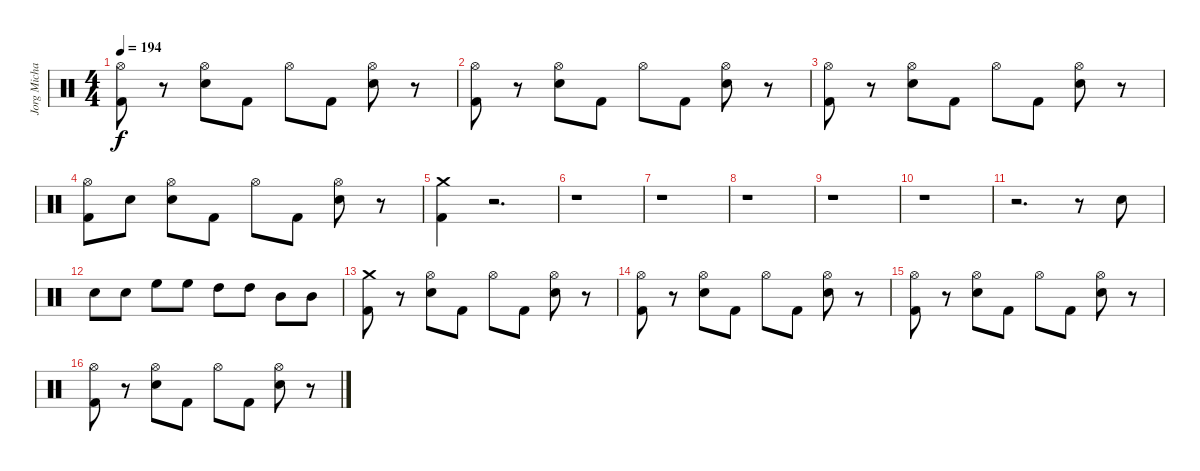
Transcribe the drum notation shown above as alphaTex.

\track ("Jorg Michael" "Jorg Micha") {instrument percussion}
\staff {score}
\articulation defaults
\ts (4 4)
\tempo 194
\clef neutral
\ks c
("Hi-Hat (open)" "Kick (hit) 2").8{dy f} r.8 ("Snare (hit) 2" "Hi-Hat (open)").8 "Kick (hit) 2".8 "Hi-Hat (open)".8 "Kick (hit) 2".8 ("Snare (hit) 2" "Hi-Hat (open)").8 r.8 |
("Hi-Hat (open)" "Kick (hit) 2").8 r.8 ("Snare (hit) 2" "Hi-Hat (open)").8 "Kick (hit) 2".8 "Hi-Hat (open)".8 "Kick (hit) 2".8 ("Snare (hit) 2" "Hi-Hat (open)").8 r.8 |
("Hi-Hat (open)" "Kick (hit) 2").8 r.8 ("Snare (hit) 2" "Hi-Hat (open)").8 "Kick (hit) 2".8 "Hi-Hat (open)".8 "Kick (hit) 2".8 ("Snare (hit) 2" "Hi-Hat (open)").8 r.8 |
("Hi-Hat (open)" "Kick (hit) 2").8 "Snare (hit) 2".8 ("Snare (hit) 2" "Hi-Hat (open)").8 "Kick (hit) 2".8 "Hi-Hat (open)".8 "Kick (hit) 2".8 ("Snare (hit) 2" "Hi-Hat (open)").8 r.8 |
("Kick (hit) 2" "Crash medium (hit)").4 r.2{d} |
r.1 |
r.1 |
r.1 |
r.1 |
r.1 |
r.2{d} r.8 "Snare (hit) 2".8 |
"Snare (hit) 2".8 "Snare (hit) 2".8 "High Floor Tom (hit)".8 "High Floor Tom (hit)".8 "High Tom (hit)".8 "High Tom (hit)".8 "Mid Tom (hit)".8 "Mid Tom (hit)".8 |
("Crash medium (hit)" "Kick (hit) 2").8 r.8 ("Snare (hit) 2" "Hi-Hat (open)").8 "Kick (hit) 2".8 "Hi-Hat (open)".8 "Kick (hit) 2".8 ("Snare (hit) 2" "Hi-Hat (open)").8 r.8 |
("Hi-Hat (open)" "Kick (hit) 2").8 r.8 ("Snare (hit) 2" "Hi-Hat (open)").8 "Kick (hit) 2".8 "Hi-Hat (open)".8 "Kick (hit) 2".8 ("Snare (hit) 2" "Hi-Hat (open)").8 r.8 |
("Hi-Hat (open)" "Kick (hit) 2").8 r.8 ("Snare (hit) 2" "Hi-Hat (open)").8 "Kick (hit) 2".8 "Hi-Hat (open)".8 "Kick (hit) 2".8 ("Snare (hit) 2" "Hi-Hat (open)").8 r.8 |
("Hi-Hat (open)" "Kick (hit) 2").8 r.8 ("Snare (hit) 2" "Hi-Hat (open)").8 "Kick (hit) 2".8 "Hi-Hat (open)".8 "Kick (hit) 2".8 ("Snare (hit) 2" "Hi-Hat (open)").8 r.8
